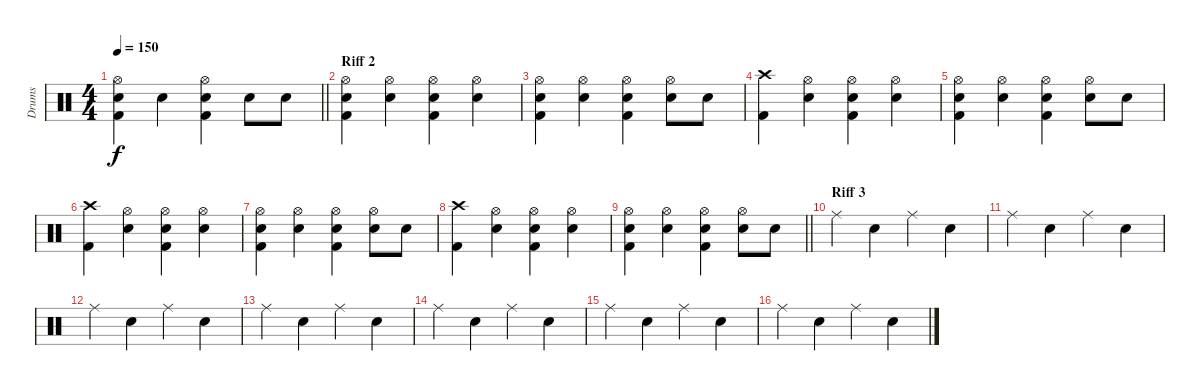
\track ("Drums" "Drums") {instrument percussion}
\staff
\articulation defaults
\ts (4 4)
\tempo 150
\clef neutral
\barLineRight lightlight
\ks c
("Hi-Hat (open)" "Snare (hit) 2" "Kick (hit) 2").4{dy f} "Snare (hit) 2".4 ("Hi-Hat (open)" "Snare (hit) 2" "Kick (hit) 2").4 "Snare (hit) 2".8 "Snare (hit) 2".8 |
\section ("" "Riff 2")
("Hi-Hat (open)" "Snare (hit) 2" "Kick (hit) 2").4 ("Hi-Hat (open)" "Snare (hit) 2").4 ("Hi-Hat (open)" "Snare (hit) 2" "Kick (hit) 2").4 ("Hi-Hat (open)" "Snare (hit) 2").4 |
("Hi-Hat (open)" "Snare (hit) 2" "Kick (hit) 2").4 ("Hi-Hat (open)" "Snare (hit) 2").4 ("Hi-Hat (open)" "Snare (hit) 2" "Kick (hit) 2").4 ("Hi-Hat (open)" "Snare (hit) 2").8 "Snare (hit) 2".8 |
("Crash high (hit)" "Kick (hit) 2").4 ("Hi-Hat (open)" "Snare (hit) 2").4 ("Hi-Hat (open)" "Snare (hit) 2" "Kick (hit) 2").4 ("Hi-Hat (open)" "Snare (hit) 2").4 |
("Hi-Hat (open)" "Snare (hit) 2" "Kick (hit) 2").4 ("Hi-Hat (open)" "Snare (hit) 2").4 ("Hi-Hat (open)" "Snare (hit) 2" "Kick (hit) 2").4 ("Hi-Hat (open)" "Snare (hit) 2").8 "Snare (hit) 2".8 |
("Crash high (hit)" "Kick (hit) 2").4 ("Hi-Hat (open)" "Snare (hit) 2").4 ("Hi-Hat (open)" "Snare (hit) 2" "Kick (hit) 2").4 ("Hi-Hat (open)" "Snare (hit) 2").4 |
("Hi-Hat (open)" "Snare (hit) 2" "Kick (hit) 2").4 ("Hi-Hat (open)" "Snare (hit) 2").4 ("Hi-Hat (open)" "Snare (hit) 2" "Kick (hit) 2").4 ("Hi-Hat (open)" "Snare (hit) 2").8 "Snare (hit) 2".8 |
("Crash high (hit)" "Kick (hit) 2").4 ("Hi-Hat (open)" "Snare (hit) 2").4 ("Hi-Hat (open)" "Snare (hit) 2" "Kick (hit) 2").4 ("Hi-Hat (open)" "Snare (hit) 2").4 |
\barLineRight lightlight
("Hi-Hat (open)" "Snare (hit) 2" "Kick (hit) 2").4 ("Hi-Hat (open)" "Snare (hit) 2").4 ("Hi-Hat (open)" "Snare (hit) 2" "Kick (hit) 2").4 ("Hi-Hat (open)" "Snare (hit) 2").8 "Snare (hit) 2".8 |
\section ("" "Riff 3")
"Ride (middle)".4 "Snare (hit) 2".4 "Ride (middle)".4 "Snare (hit) 2".4 |
"Ride (middle)".4 "Snare (hit) 2".4 "Ride (middle)".4 "Snare (hit) 2".4 |
"Ride (middle)".4 "Snare (hit) 2".4 "Ride (middle)".4 "Snare (hit) 2".4 |
"Ride (middle)".4 "Snare (hit) 2".4 "Ride (middle)".4 "Snare (hit) 2".4 |
"Ride (middle)".4 "Snare (hit) 2".4 "Ride (middle)".4 "Snare (hit) 2".4 |
"Ride (middle)".4 "Snare (hit) 2".4 "Ride (middle)".4 "Snare (hit) 2".4 |
"Ride (middle)".4 "Snare (hit) 2".4 "Ride (middle)".4 "Snare (hit) 2".4
